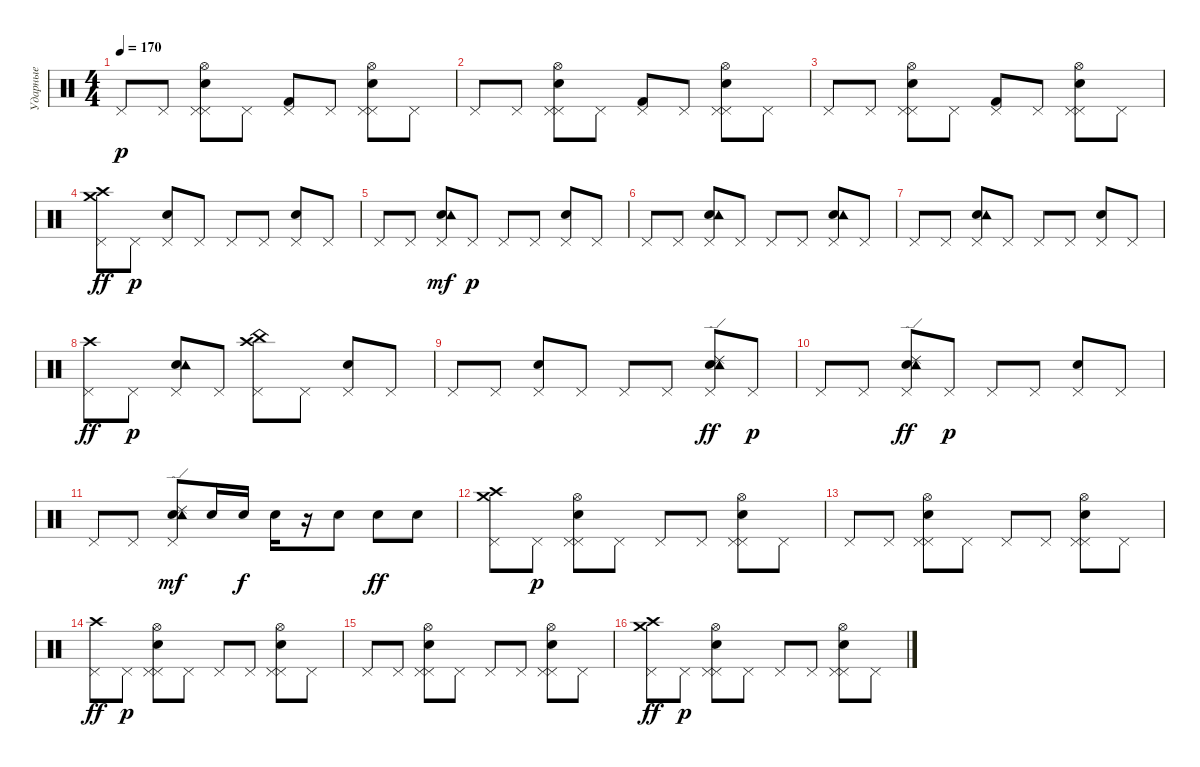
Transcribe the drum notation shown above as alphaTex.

\track ("Ударные" "Ударные") {instrument percussion}
\staff {score}
\articulation defaults
\ts (4 4)
\tempo 170
\clef neutral
\ks c "Pedal Hi-Hat (hit)".8{dy p} "Pedal Hi-Hat (hit)".8
("Pedal Hi-Hat (hit)" "Snare (hit) 2" "Pedal Hi-Hat (hit)" "Hi-Hat (open)").8 "Pedal Hi-Hat (hit)".8 ("Pedal Hi-Hat (hit)" "Kick (hit) 2").8 "Pedal Hi-Hat (hit)".8 ("Pedal Hi-Hat (hit)" "Snare (hit) 2" "Pedal Hi-Hat (hit)" "Hi-Hat (open)").8 "Pedal Hi-Hat (hit)".8 |
"Pedal Hi-Hat (hit)".8 "Pedal Hi-Hat (hit)".8 ("Pedal Hi-Hat (hit)" "Snare (hit) 2" "Pedal Hi-Hat (hit)" "Hi-Hat (open)").8 "Pedal Hi-Hat (hit)".8 ("Pedal Hi-Hat (hit)" "Kick (hit) 2").8 "Pedal Hi-Hat (hit)".8 ("Pedal Hi-Hat (hit)" "Snare (hit) 2" "Pedal Hi-Hat (hit)" "Hi-Hat (open)").8 "Pedal Hi-Hat (hit)".8 |
"Pedal Hi-Hat (hit)".8 "Pedal Hi-Hat (hit)".8 ("Pedal Hi-Hat (hit)" "Snare (hit) 2" "Pedal Hi-Hat (hit)" "Hi-Hat (open)").8 "Pedal Hi-Hat (hit)".8 ("Pedal Hi-Hat (hit)" "Kick (hit) 2").8 "Pedal Hi-Hat (hit)".8 ("Pedal Hi-Hat (hit)" "Snare (hit) 2" "Pedal Hi-Hat (hit)" "Hi-Hat (open)").8 "Pedal Hi-Hat (hit)".8 |
("Pedal Hi-Hat (hit)" "Crash medium (hit)" "Crash high (hit)").8{dy ff} "Pedal Hi-Hat (hit)".8{dy p} ("Electric Snare (hit)" "Pedal Hi-Hat (hit)").8 "Pedal Hi-Hat (hit)".8 "Pedal Hi-Hat (hit)".8 "Pedal Hi-Hat (hit)".8 ("Electric Snare (hit)" "Pedal Hi-Hat (hit)").8 "Pedal Hi-Hat (hit)".8 |
"Pedal Hi-Hat (hit)".8 "Pedal Hi-Hat (hit)".8 ("Electric Snare (hit)" "Pedal Hi-Hat (hit)" "Tambourine (hit)").8{dy mf} "Pedal Hi-Hat (hit)".8{dy p} "Pedal Hi-Hat (hit)".8 "Pedal Hi-Hat (hit)".8 ("Electric Snare (hit)" "Pedal Hi-Hat (hit)").8 "Pedal Hi-Hat (hit)".8 |
"Pedal Hi-Hat (hit)".8 "Pedal Hi-Hat (hit)".8 ("Electric Snare (hit)" "Pedal Hi-Hat (hit)" "Tambourine (hit)").8 "Pedal Hi-Hat (hit)".8 "Pedal Hi-Hat (hit)".8 "Pedal Hi-Hat (hit)".8 ("Electric Snare (hit)" "Pedal Hi-Hat (hit)" "Tambourine (hit)").8 "Pedal Hi-Hat (hit)".8 |
"Pedal Hi-Hat (hit)".8 "Pedal Hi-Hat (hit)".8 ("Electric Snare (hit)" "Pedal Hi-Hat (hit)" "Tambourine (hit)").8 "Pedal Hi-Hat (hit)".8 "Pedal Hi-Hat (hit)".8 "Pedal Hi-Hat (hit)".8 ("Electric Snare (hit)" "Pedal Hi-Hat (hit)").8 "Pedal Hi-Hat (hit)".8 |
("Pedal Hi-Hat (hit)" "Crash high (hit)").8{dy ff} "Pedal Hi-Hat (hit)".8{dy p} ("Electric Snare (hit)" "Pedal Hi-Hat (hit)" "Tambourine (hit)").8 "Pedal Hi-Hat (hit)".8 ("Pedal Hi-Hat (hit)" "China (hit)" "Crash high (hit)").8 "Pedal Hi-Hat (hit)".8 ("Electric Snare (hit)" "Pedal Hi-Hat (hit)").8 "Pedal Hi-Hat (hit)".8 |
"Pedal Hi-Hat (hit)".8 "Pedal Hi-Hat (hit)".8 ("Electric Snare (hit)" "Pedal Hi-Hat (hit)").8 "Pedal Hi-Hat (hit)".8 "Pedal Hi-Hat (hit)".8 "Pedal Hi-Hat (hit)".8 ("Electric Snare (hit)" "Pedal Hi-Hat (hit)" "Tambourine (hit)" "Ride (edge) 2").8{dy ff} "Pedal Hi-Hat (hit)".8{dy p} |
"Pedal Hi-Hat (hit)".8 "Pedal Hi-Hat (hit)".8 ("Electric Snare (hit)" "Pedal Hi-Hat (hit)" "Tambourine (hit)" "Ride (edge) 2").8{dy ff} "Pedal Hi-Hat (hit)".8{dy p} "Pedal Hi-Hat (hit)".8 "Pedal Hi-Hat (hit)".8 ("Electric Snare (hit)" "Pedal Hi-Hat (hit)").8 "Pedal Hi-Hat (hit)".8 |
"Pedal Hi-Hat (hit)".8 "Pedal Hi-Hat (hit)".8 ("Electric Snare (hit)" "Pedal Hi-Hat (hit)" "Tambourine (hit)" "Ride (edge) 2").8{dy mf} "Electric Snare (hit)".16 "Electric Snare (hit)".16{dy f} "Electric Snare (hit)".16 r.16 "Electric Snare (hit)".8 "Snare (hit) 2".8{dy ff} "Electric Snare (hit)".8 |
("Pedal Hi-Hat (hit)" "Crash medium (hit)" "Crash high (hit)").8 "Pedal Hi-Hat (hit)".8{dy p} ("Pedal Hi-Hat (hit)" "Snare (hit) 2" "Pedal Hi-Hat (hit)" "Hi-Hat (open)").8 "Pedal Hi-Hat (hit)".8 "Pedal Hi-Hat (hit)".8 "Pedal Hi-Hat (hit)".8 ("Pedal Hi-Hat (hit)" "Snare (hit) 2" "Pedal Hi-Hat (hit)" "Hi-Hat (open)").8 "Pedal Hi-Hat (hit)".8 |
"Pedal Hi-Hat (hit)".8 "Pedal Hi-Hat (hit)".8 ("Pedal Hi-Hat (hit)" "Snare (hit) 2" "Pedal Hi-Hat (hit)" "Hi-Hat (open)").8 "Pedal Hi-Hat (hit)".8 "Pedal Hi-Hat (hit)".8 "Pedal Hi-Hat (hit)".8 ("Pedal Hi-Hat (hit)" "Snare (hit) 2" "Pedal Hi-Hat (hit)" "Hi-Hat (open)").8 "Pedal Hi-Hat (hit)".8 |
("Pedal Hi-Hat (hit)" "Crash high (hit)").8{dy ff} "Pedal Hi-Hat (hit)".8{dy p} ("Pedal Hi-Hat (hit)" "Snare (hit) 2" "Pedal Hi-Hat (hit)" "Hi-Hat (open)").8 "Pedal Hi-Hat (hit)".8 "Pedal Hi-Hat (hit)".8 "Pedal Hi-Hat (hit)".8 ("Pedal Hi-Hat (hit)" "Snare (hit) 2" "Pedal Hi-Hat (hit)" "Hi-Hat (open)").8 "Pedal Hi-Hat (hit)".8 |
"Pedal Hi-Hat (hit)".8 "Pedal Hi-Hat (hit)".8 ("Pedal Hi-Hat (hit)" "Snare (hit) 2" "Pedal Hi-Hat (hit)" "Hi-Hat (open)").8 "Pedal Hi-Hat (hit)".8 "Pedal Hi-Hat (hit)".8 "Pedal Hi-Hat (hit)".8 ("Pedal Hi-Hat (hit)" "Snare (hit) 2" "Pedal Hi-Hat (hit)" "Hi-Hat (open)").8 "Pedal Hi-Hat (hit)".8 |
("Pedal Hi-Hat (hit)" "Crash medium (hit)" "Crash high (hit)").8{dy ff} "Pedal Hi-Hat (hit)".8{dy p} ("Pedal Hi-Hat (hit)" "Snare (hit) 2" "Pedal Hi-Hat (hit)" "Hi-Hat (open)").8 "Pedal Hi-Hat (hit)".8 "Pedal Hi-Hat (hit)".8 "Pedal Hi-Hat (hit)".8 ("Pedal Hi-Hat (hit)" "Snare (hit) 2" "Pedal Hi-Hat (hit)" "Hi-Hat (open)").8 "Pedal Hi-Hat (hit)".8
